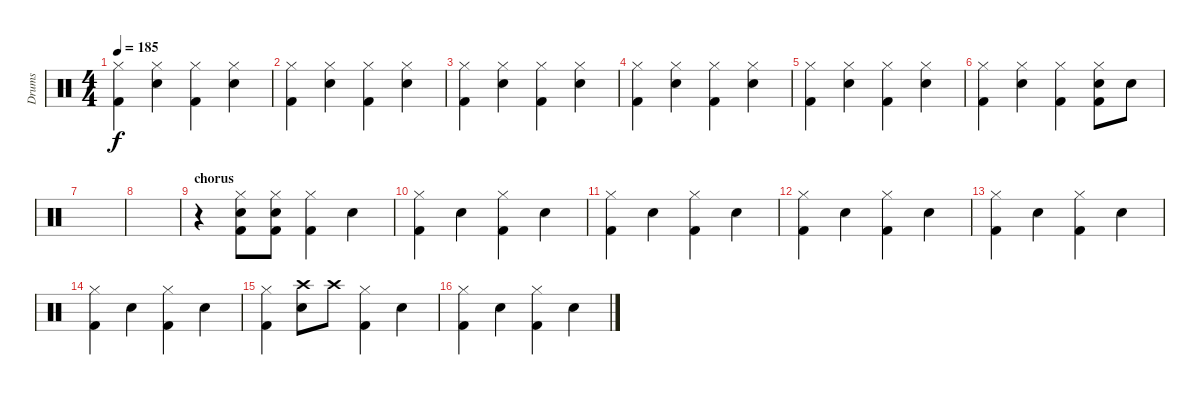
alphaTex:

\track ("Drums" "Drums") {instrument percussion}
\staff {score}
\articulation defaults
\ts (4 4)
\tempo 185
\clef neutral
\ks c
("Hi-Hat (closed)" "Kick (hit) 2").4{dy f} ("Hi-Hat (closed)" "Snare (hit) 2").4 ("Hi-Hat (closed)" "Kick (hit) 2").4 ("Hi-Hat (closed)" "Snare (hit) 2").4 |
("Hi-Hat (closed)" "Kick (hit) 2").4 ("Hi-Hat (closed)" "Snare (hit) 2").4 ("Hi-Hat (closed)" "Kick (hit) 2").4 ("Hi-Hat (closed)" "Snare (hit) 2").4 |
("Hi-Hat (closed)" "Kick (hit) 2").4 ("Hi-Hat (closed)" "Snare (hit) 2").4 ("Hi-Hat (closed)" "Kick (hit) 2").4 ("Hi-Hat (closed)" "Snare (hit) 2").4 |
("Hi-Hat (closed)" "Kick (hit) 2").4 ("Hi-Hat (closed)" "Snare (hit) 2").4 ("Hi-Hat (closed)" "Kick (hit) 2").4 ("Hi-Hat (closed)" "Snare (hit) 2").4 |
("Hi-Hat (closed)" "Kick (hit) 2").4 ("Hi-Hat (closed)" "Snare (hit) 2").4 ("Hi-Hat (closed)" "Kick (hit) 2").4 ("Hi-Hat (closed)" "Snare (hit) 2").4 |
("Hi-Hat (closed)" "Kick (hit) 2").4 ("Hi-Hat (closed)" "Snare (hit) 2").4 ("Hi-Hat (closed)" "Kick (hit) 2").4 ("Hi-Hat (closed)" "Snare (hit) 2" "Kick (hit) 2").8 "Snare (hit) 2".8 |
|
|
\section ("" "chorus")
r.4 ("Hi-Hat (closed)" "Snare (hit) 2" "Kick (hit) 2").8 ("Hi-Hat (closed)" "Snare (hit) 2" "Kick (hit) 2").8 ("Hi-Hat (closed)" "Kick (hit) 2").4 "Snare (hit) 2".4 |
("Hi-Hat (closed)" "Kick (hit) 2").4 "Snare (hit) 2".4 ("Hi-Hat (closed)" "Kick (hit) 2").4 "Snare (hit) 2".4 |
("Hi-Hat (closed)" "Kick (hit) 2").4 "Snare (hit) 2".4 ("Hi-Hat (closed)" "Kick (hit) 2").4 "Snare (hit) 2".4 |
("Hi-Hat (closed)" "Kick (hit) 2").4 "Snare (hit) 2".4 ("Hi-Hat (closed)" "Kick (hit) 2").4 "Snare (hit) 2".4 |
("Hi-Hat (closed)" "Kick (hit) 2").4 "Snare (hit) 2".4 ("Hi-Hat (closed)" "Kick (hit) 2").4 "Snare (hit) 2".4 |
("Hi-Hat (closed)" "Kick (hit) 2").4 "Snare (hit) 2".4 ("Hi-Hat (closed)" "Kick (hit) 2").4 "Snare (hit) 2".4 |
("Hi-Hat (closed)" "Kick (hit) 2").4 ("Crash high (hit)" "Snare (hit) 2").8 "Crash high (hit)".8 ("Hi-Hat (closed)" "Kick (hit) 2").4 "Snare (hit) 2".4 |
("Hi-Hat (closed)" "Kick (hit) 2").4 "Snare (hit) 2".4 ("Hi-Hat (closed)" "Kick (hit) 2").4 "Snare (hit) 2".4
